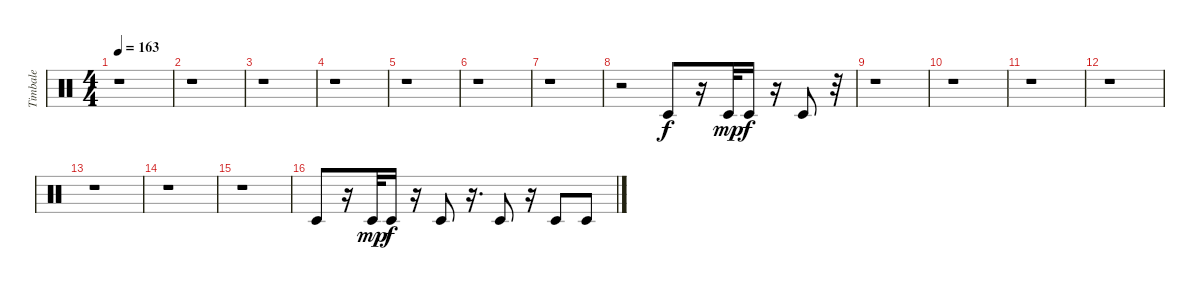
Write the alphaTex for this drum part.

\track ("Timbale" "Timbale") {instrument percussion}
\staff {score}
\articulation defaults
\ts (4 4)
\tempo 163
\clef neutral
\ks c
r.1{dy f} |
r.1 |
r.1 |
r.1 |
r.1 |
r.1 |
r.1 |
r.2 "Timbale low (hit)".8 r.16 "Timbale low (hit)".32{dy mp} "Timbale low (hit)".16{dy f} r.16 "Timbale low (hit)".8 r.32 |
r.1 |
r.1 |
r.1 |
r.1 |
r.1 |
r.1 |
r.1 |
"Timbale low (hit)".8 r.16 "Timbale low (hit)".32{dy mp} "Timbale low (hit)".16{dy f} r.16 "Timbale low (hit)".8 r.16{d} "Timbale low (hit)".8 r.16 "Timbale low (hit)".8 "Timbale low (hit)".8
